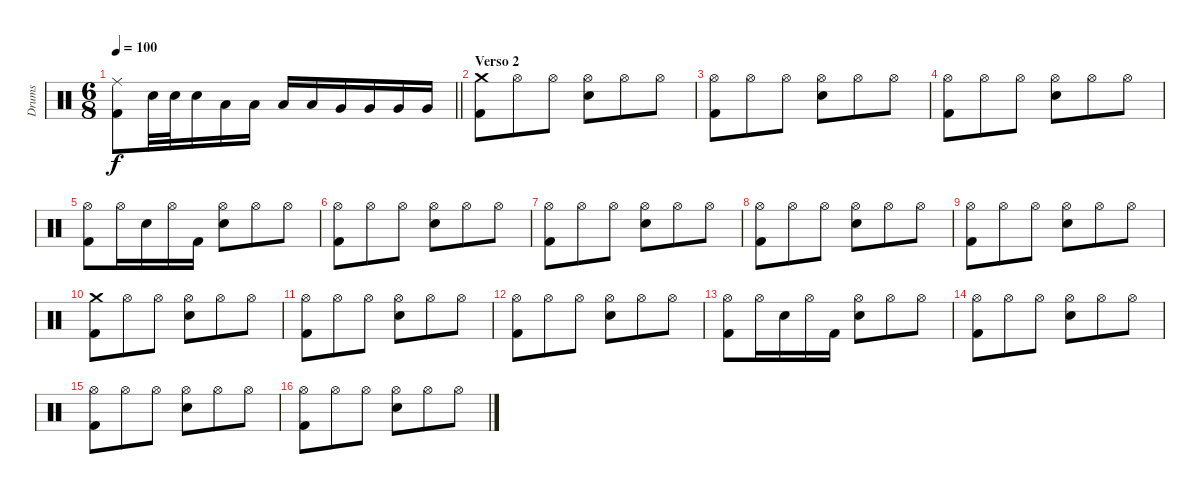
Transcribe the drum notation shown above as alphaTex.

\track ("Drums" "Drums") {instrument percussion}
\staff {score}
\articulation defaults
\ts (6 8)
\tempo 100
\clef neutral
\barLineRight lightlight
\ks c
("Ride (middle)" "Kick (hit) 2").8{dy f} "Snare (hit) 2".32 "Snare (hit) 2".32 "Snare (hit) 2".16 "Low Tom (hit)".16 "Low Tom (hit)".16 "Low Tom (hit)".16 "Low Tom (hit)".16 "Very Low Tom (hit)".16 "Very Low Tom (hit)".16 "Very Low Tom (hit)".16 "Very Low Tom (hit)".16 |
\section ("" "Verso 2")
("Crash medium (hit)" "Kick (hit) 2").8 "Hi-Hat (open)".8 "Hi-Hat (open)".8 ("Hi-Hat (open)" "Snare (hit) 2").8 "Hi-Hat (open)".8 "Hi-Hat (open)".8 |
("Hi-Hat (open)" "Kick (hit) 2").8 "Hi-Hat (open)".8 "Hi-Hat (open)".8 ("Hi-Hat (open)" "Snare (hit) 2").8 "Hi-Hat (open)".8 "Hi-Hat (open)".8 |
("Hi-Hat (open)" "Kick (hit) 2").8 "Hi-Hat (open)".8 "Hi-Hat (open)".8 ("Hi-Hat (open)" "Snare (hit) 2").8 "Hi-Hat (open)".8 "Hi-Hat (open)".8 |
("Hi-Hat (open)" "Kick (hit) 2").8 "Hi-Hat (open)".16 "Snare (hit) 2".16 "Hi-Hat (open)".16 "Kick (hit) 2".16 ("Hi-Hat (open)" "Snare (hit) 2").8 "Hi-Hat (open)".8 "Hi-Hat (open)".8 |
("Hi-Hat (open)" "Kick (hit) 2").8 "Hi-Hat (open)".8 "Hi-Hat (open)".8 ("Hi-Hat (open)" "Snare (hit) 2").8 "Hi-Hat (open)".8 "Hi-Hat (open)".8 |
("Hi-Hat (open)" "Kick (hit) 2").8 "Hi-Hat (open)".8 "Hi-Hat (open)".8 ("Hi-Hat (open)" "Snare (hit) 2").8 "Hi-Hat (open)".8 "Hi-Hat (open)".8 |
("Hi-Hat (open)" "Kick (hit) 2").8 "Hi-Hat (open)".8 "Hi-Hat (open)".8 ("Hi-Hat (open)" "Snare (hit) 2").8 "Hi-Hat (open)".8 "Hi-Hat (open)".8 |
("Hi-Hat (open)" "Kick (hit) 2").8 "Hi-Hat (open)".8 "Hi-Hat (open)".8 ("Hi-Hat (open)" "Snare (hit) 2").8 "Hi-Hat (open)".8 "Hi-Hat (open)".8 |
("Crash medium (hit)" "Kick (hit) 2").8 "Hi-Hat (open)".8 "Hi-Hat (open)".8 ("Hi-Hat (open)" "Snare (hit) 2").8 "Hi-Hat (open)".8 "Hi-Hat (open)".8 |
("Hi-Hat (open)" "Kick (hit) 2").8 "Hi-Hat (open)".8 "Hi-Hat (open)".8 ("Hi-Hat (open)" "Snare (hit) 2").8 "Hi-Hat (open)".8 "Hi-Hat (open)".8 |
("Hi-Hat (open)" "Kick (hit) 2").8 "Hi-Hat (open)".8 "Hi-Hat (open)".8 ("Hi-Hat (open)" "Snare (hit) 2").8 "Hi-Hat (open)".8 "Hi-Hat (open)".8 |
("Hi-Hat (open)" "Kick (hit) 2").8 "Hi-Hat (open)".16 "Snare (hit) 2".16 "Hi-Hat (open)".16 "Kick (hit) 2".16 ("Hi-Hat (open)" "Snare (hit) 2").8 "Hi-Hat (open)".8 "Hi-Hat (open)".8 |
("Hi-Hat (open)" "Kick (hit) 2").8 "Hi-Hat (open)".8 "Hi-Hat (open)".8 ("Hi-Hat (open)" "Snare (hit) 2").8 "Hi-Hat (open)".8 "Hi-Hat (open)".8 |
("Hi-Hat (open)" "Kick (hit) 2").8 "Hi-Hat (open)".8 "Hi-Hat (open)".8 ("Hi-Hat (open)" "Snare (hit) 2").8 "Hi-Hat (open)".8 "Hi-Hat (open)".8 |
("Hi-Hat (open)" "Kick (hit) 2").8 "Hi-Hat (open)".8 "Hi-Hat (open)".8 ("Hi-Hat (open)" "Snare (hit) 2").8 "Hi-Hat (open)".8 "Hi-Hat (open)".8
